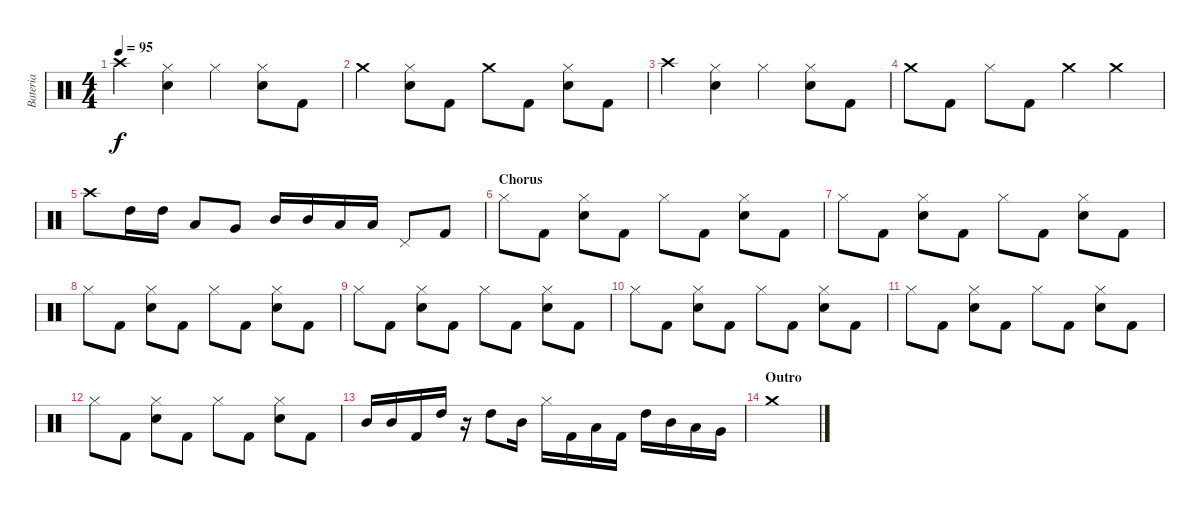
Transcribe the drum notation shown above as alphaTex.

\track ("Bateria" "Bateria") {instrument percussion}
\staff {score}
\articulation defaults
\ts (4 4)
\tempo 95
\clef neutral
\ks c "Crash high (hit)".4{dy f}
("Hi-Hat (closed)" "Snare (hit) 2").4 "Hi-Hat (closed)".4 ("Hi-Hat (closed)" "Snare (hit) 2").8 "Kick (hit) 2".8 |
"Crash medium (hit)".4 ("Hi-Hat (closed)" "Snare (hit) 2").8 "Kick (hit) 2".8 "Crash medium (hit)".8 "Kick (hit) 2".8 ("Hi-Hat (closed)" "Snare (hit) 2").8 "Kick (hit) 2".8 |
"Crash high (hit)".4 ("Hi-Hat (closed)" "Snare (hit) 2").4 "Hi-Hat (closed)".4 ("Hi-Hat (closed)" "Snare (hit) 2").8 "Kick (hit) 2".8 |
"Crash medium (hit)".8 "Kick (hit) 2".8 "Hi-Hat (closed)".8 "Kick (hit) 2".8 "Crash medium (hit)".4 "Crash medium (hit)".4 |
"Crash high (hit)".8 "High Tom (hit)".16 "High Tom (hit)".16 "Low Tom (hit)".8 "Very Low Tom (hit)".8 "Mid Tom (hit)".16 "Mid Tom (hit)".16 "Low Tom (hit)".16 "Low Tom (hit)".16 "Pedal Hi-Hat (hit)".8 "Kick (hit) 2".8 |
\section ("" "Chorus")
"Hi-Hat (closed)".8 "Kick (hit) 2".8 ("Hi-Hat (closed)" "Electric Snare (hit)").8 "Kick (hit) 2".8 "Hi-Hat (closed)".8 "Kick (hit) 2".8 ("Hi-Hat (closed)" "Electric Snare (hit)").8 "Kick (hit) 2".8 |
"Hi-Hat (closed)".8 "Kick (hit) 2".8 ("Hi-Hat (closed)" "Electric Snare (hit)").8 "Kick (hit) 2".8 "Hi-Hat (closed)".8 "Kick (hit) 2".8 ("Hi-Hat (closed)" "Electric Snare (hit)").8 "Kick (hit) 2".8 |
"Hi-Hat (closed)".8 "Kick (hit) 2".8 ("Hi-Hat (closed)" "Electric Snare (hit)").8 "Kick (hit) 2".8 "Hi-Hat (closed)".8 "Kick (hit) 2".8 ("Hi-Hat (closed)" "Electric Snare (hit)").8 "Kick (hit) 2".8 |
"Hi-Hat (closed)".8 "Kick (hit) 2".8 ("Hi-Hat (closed)" "Electric Snare (hit)").8 "Kick (hit) 2".8 "Hi-Hat (closed)".8 "Kick (hit) 2".8 ("Hi-Hat (closed)" "Electric Snare (hit)").8 "Kick (hit) 2".8 |
"Hi-Hat (closed)".8 "Kick (hit) 2".8 ("Hi-Hat (closed)" "Electric Snare (hit)").8 "Kick (hit) 2".8 "Hi-Hat (closed)".8 "Kick (hit) 2".8 ("Hi-Hat (closed)" "Electric Snare (hit)").8 "Kick (hit) 2".8 |
"Hi-Hat (closed)".8 "Kick (hit) 2".8 ("Hi-Hat (closed)" "Electric Snare (hit)").8 "Kick (hit) 2".8 "Hi-Hat (closed)".8 "Kick (hit) 2".8 ("Hi-Hat (closed)" "Electric Snare (hit)").8 "Kick (hit) 2".8 |
"Hi-Hat (closed)".8 "Kick (hit) 2".8 ("Hi-Hat (closed)" "Electric Snare (hit)").8 "Kick (hit) 2".8 "Hi-Hat (closed)".8 "Kick (hit) 2".8 ("Hi-Hat (closed)" "Electric Snare (hit)").8 "Kick (hit) 2".8 |
"Mid Tom (hit)".16 "Mid Tom (hit)".16 "Kick (hit) 2".16 "High Tom (hit)".16 r.16 "High Tom (hit)".8 "Mid Tom (hit)".16 "Hi-Hat (closed)".16 "Kick (hit) 2".16 "Low Tom (hit)".16 "Kick (hit) 2".16 "High Tom (hit)".16 "Mid Tom (hit)".16 "Low Tom (hit)".16 "Very Low Tom (hit)".16 |
\section ("" "Outro")
"Crash medium (hit)".1
